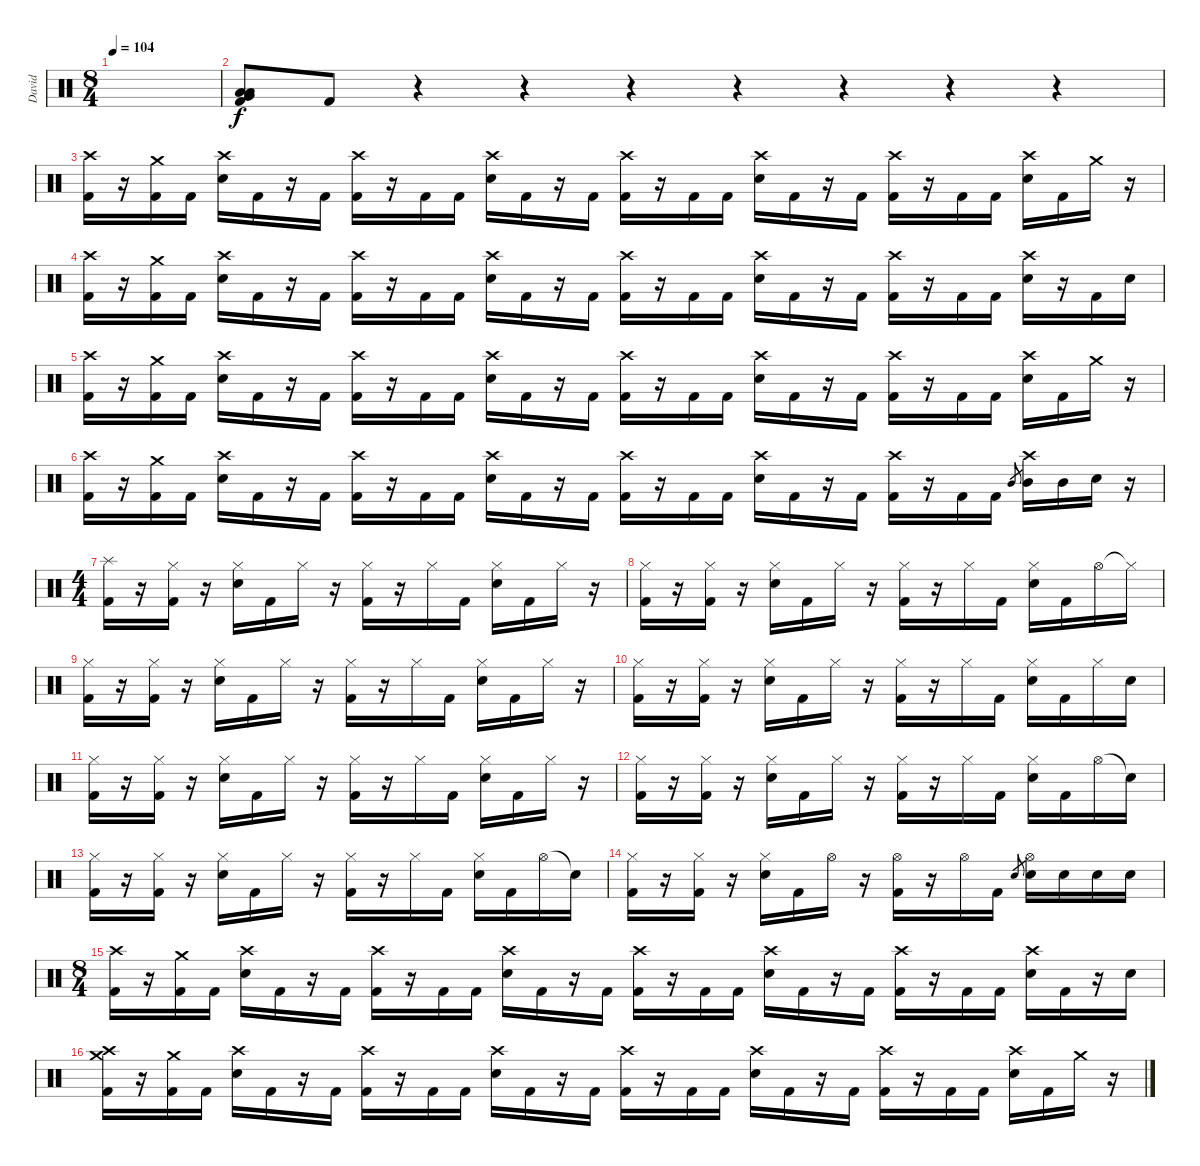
\track ("David" "David") {instrument percussion}
\staff {score}
\articulation defaults
\ts (8 4)
\tempo 104
\clef neutral
\ks c
|
("Very Low Tom (hit)" "Low Floor Tom (hit)" "Low Floor Tom (hit)" "Kick (hit) 2").8 "Kick (hit) 2".8 r.4 r.4 r.4 r.4 r.4 r.4 r.4 |
("Crash high (hit)" "Kick (hit) 2").16 r.16 ("Crash medium (hit)" "Kick (hit) 2").16 "Kick (hit) 2".16 ("Crash high (hit)" "Snare (hit) 2").16 "Kick (hit) 2".16 r.16 "Kick (hit) 2".16 ("Crash high (hit)" "Kick (hit) 2").16 r.16 "Kick (hit) 2".16 "Kick (hit) 2".16 ("Crash high (hit)" "Snare (hit) 2").16 "Kick (hit) 2".16 r.16 "Kick (hit) 2".16 ("Crash high (hit)" "Kick (hit) 2").16 r.16 "Kick (hit) 2".16 "Kick (hit) 2".16 ("Crash high (hit)" "Snare (hit) 2").16 "Kick (hit) 2".16 r.16 "Kick (hit) 2".16 ("Crash high (hit)" "Kick (hit) 2").16 r.16 "Kick (hit) 2".16 "Kick (hit) 2".16 ("Crash high (hit)" "Snare (hit) 2").16 "Kick (hit) 2".16 "Crash medium (hit)".16 r.16 |
("Crash high (hit)" "Kick (hit) 2").16 r.16 ("Crash medium (hit)" "Kick (hit) 2").16 "Kick (hit) 2".16 ("Crash high (hit)" "Snare (hit) 2").16 "Kick (hit) 2".16 r.16 "Kick (hit) 2".16 ("Crash high (hit)" "Kick (hit) 2").16 r.16 "Kick (hit) 2".16 "Kick (hit) 2".16 ("Crash high (hit)" "Snare (hit) 2").16 "Kick (hit) 2".16 r.16 "Kick (hit) 2".16 ("Crash high (hit)" "Kick (hit) 2").16 r.16 "Kick (hit) 2".16 "Kick (hit) 2".16 ("Crash high (hit)" "Snare (hit) 2").16 "Kick (hit) 2".16 r.16 "Kick (hit) 2".16 ("Crash high (hit)" "Kick (hit) 2").16 r.16 "Kick (hit) 2".16 "Kick (hit) 2".16 ("Crash high (hit)" "Snare (hit) 2").16 r.16 "Kick (hit) 2".16 "Snare (hit) 2".16 |
("Crash high (hit)" "Kick (hit) 2").16 r.16 ("Crash medium (hit)" "Kick (hit) 2").16 "Kick (hit) 2".16 ("Crash high (hit)" "Snare (hit) 2").16 "Kick (hit) 2".16 r.16 "Kick (hit) 2".16 ("Crash high (hit)" "Kick (hit) 2").16 r.16 "Kick (hit) 2".16 "Kick (hit) 2".16 ("Crash high (hit)" "Snare (hit) 2").16 "Kick (hit) 2".16 r.16 "Kick (hit) 2".16 ("Crash high (hit)" "Kick (hit) 2").16 r.16 "Kick (hit) 2".16 "Kick (hit) 2".16 ("Crash high (hit)" "Snare (hit) 2").16 "Kick (hit) 2".16 r.16 "Kick (hit) 2".16 ("Crash high (hit)" "Kick (hit) 2").16 r.16 "Kick (hit) 2".16 "Kick (hit) 2".16 ("Crash high (hit)" "Snare (hit) 2").16 "Kick (hit) 2".16 "Crash medium (hit)".16 r.16 |
("Crash high (hit)" "Kick (hit) 2").16 r.16 ("Crash medium (hit)" "Kick (hit) 2").16 "Kick (hit) 2".16 ("Crash high (hit)" "Snare (hit) 2").16 "Kick (hit) 2".16 r.16 "Kick (hit) 2".16 ("Crash high (hit)" "Kick (hit) 2").16 r.16 "Kick (hit) 2".16 "Kick (hit) 2".16 ("Crash high (hit)" "Snare (hit) 2").16 "Kick (hit) 2".16 r.16 "Kick (hit) 2".16 ("Crash high (hit)" "Kick (hit) 2").16 r.16 "Kick (hit) 2".16 "Kick (hit) 2".16 ("Crash high (hit)" "Snare (hit) 2").16 "Kick (hit) 2".16 r.16 "Kick (hit) 2".16 ("Crash high (hit)" "Kick (hit) 2").16 r.16 "Kick (hit) 2".16 "Kick (hit) 2".16 "Mid Tom (hit)".8{gr} ("Crash high (hit)" "Mid Tom (hit)").16 "Mid Tom (hit)".16 "Snare (hit) 2".16 r.16 |
\ts (4 4)
("Splash (hit)" "Kick (hit) 2").16 r.16 ("Hi-Hat (closed)" "Kick (hit) 2").16 r.16 ("Hi-Hat (closed)" "Snare (hit) 2").16 "Kick (hit) 2".16 "Hi-Hat (closed)".16 r.16 ("Hi-Hat (closed)" "Kick (hit) 2").16 r.16 "Hi-Hat (closed)".16 "Kick (hit) 2".16 ("Hi-Hat (closed)" "Snare (hit) 2").16 "Kick (hit) 2".16 "Hi-Hat (closed)".16 r.16 |
("Hi-Hat (closed)" "Kick (hit) 2").16 r.16 ("Hi-Hat (closed)" "Kick (hit) 2").16 r.16 ("Hi-Hat (closed)" "Snare (hit) 2").16 "Kick (hit) 2".16 "Hi-Hat (closed)".16 r.16 ("Hi-Hat (closed)" "Kick (hit) 2").16 r.16 "Hi-Hat (closed)".16 "Kick (hit) 2".16 ("Hi-Hat (closed)" "Snare (hit) 2").16 "Kick (hit) 2".16 "Hi-Hat (open)".16 "Hi-Hat (closed)"{t}.16 |
("Hi-Hat (closed)" "Kick (hit) 2").16 r.16 ("Hi-Hat (closed)" "Kick (hit) 2").16 r.16 ("Hi-Hat (closed)" "Snare (hit) 2").16 "Kick (hit) 2".16 "Hi-Hat (closed)".16 r.16 ("Hi-Hat (closed)" "Kick (hit) 2").16 r.16 "Hi-Hat (closed)".16 "Kick (hit) 2".16 ("Hi-Hat (closed)" "Snare (hit) 2").16 "Kick (hit) 2".16 "Hi-Hat (closed)".16 r.16 |
("Hi-Hat (closed)" "Kick (hit) 2").16 r.16 ("Hi-Hat (closed)" "Kick (hit) 2").16 r.16 ("Hi-Hat (closed)" "Snare (hit) 2").16 "Kick (hit) 2".16 "Hi-Hat (closed)".16 r.16 ("Hi-Hat (closed)" "Kick (hit) 2").16 r.16 "Hi-Hat (closed)".16 "Kick (hit) 2".16 ("Hi-Hat (closed)" "Snare (hit) 2").16 "Kick (hit) 2".16 "Hi-Hat (closed)".16 "Snare (hit) 2".16 |
("Hi-Hat (closed)" "Kick (hit) 2").16 r.16 ("Hi-Hat (closed)" "Kick (hit) 2").16 r.16 ("Hi-Hat (closed)" "Snare (hit) 2").16 "Kick (hit) 2".16 "Hi-Hat (closed)".16 r.16 ("Hi-Hat (closed)" "Kick (hit) 2").16 r.16 "Hi-Hat (closed)".16 "Kick (hit) 2".16 ("Hi-Hat (closed)" "Snare (hit) 2").16 "Kick (hit) 2".16 "Hi-Hat (closed)".16 r.16 |
("Hi-Hat (closed)" "Kick (hit) 2").16 r.16 ("Hi-Hat (closed)" "Kick (hit) 2").16 r.16 ("Hi-Hat (closed)" "Snare (hit) 2").16 "Kick (hit) 2".16 "Hi-Hat (closed)".16 r.16 ("Hi-Hat (closed)" "Kick (hit) 2").16 r.16 "Hi-Hat (closed)".16 "Kick (hit) 2".16 ("Hi-Hat (closed)" "Snare (hit) 2").16 "Kick (hit) 2".16 "Hi-Hat (open)".16 "Snare (hit)"{t}.16 |
("Hi-Hat (closed)" "Kick (hit) 2").16 r.16 ("Hi-Hat (closed)" "Kick (hit) 2").16 r.16 ("Hi-Hat (closed)" "Snare (hit) 2").16 "Kick (hit) 2".16 "Hi-Hat (closed)".16 r.16 ("Hi-Hat (closed)" "Kick (hit) 2").16 r.16 "Hi-Hat (closed)".16 "Kick (hit) 2".16 ("Hi-Hat (closed)" "Snare (hit) 2").16 "Kick (hit) 2".16 "Hi-Hat (open)".16 "Snare (hit)"{t}.16 |
("Hi-Hat (closed)" "Kick (hit) 2").16 r.16 ("Hi-Hat (closed)" "Kick (hit) 2").16 r.16 ("Hi-Hat (closed)" "Snare (hit) 2").16 "Kick (hit) 2".16 "Hi-Hat (open)".16 r.16 ("Hi-Hat (open)" "Kick (hit) 2").16 r.16 "Hi-Hat (open)".16 "Kick (hit) 2".16 "Snare (hit) 2".8{gr} ("Hi-Hat (open)" "Snare (hit) 2").16 "Snare (hit) 2".16 "Snare (hit) 2".16 "Snare (hit) 2".16 |
\ts (8 4)
("Crash high (hit)" "Kick (hit) 2").16 r.16 ("Crash medium (hit)" "Kick (hit) 2").16 "Kick (hit) 2".16 ("Crash high (hit)" "Snare (hit) 2").16 "Kick (hit) 2".16 r.16 "Kick (hit) 2".16 ("Crash high (hit)" "Kick (hit) 2").16 r.16 "Kick (hit) 2".16 "Kick (hit) 2".16 ("Crash high (hit)" "Snare (hit) 2").16 "Kick (hit) 2".16 r.16 "Kick (hit) 2".16 ("Crash high (hit)" "Kick (hit) 2").16 r.16 "Kick (hit) 2".16 "Kick (hit) 2".16 ("Crash high (hit)" "Snare (hit) 2").16 "Kick (hit) 2".16 r.16 "Kick (hit) 2".16 ("Crash high (hit)" "Kick (hit) 2").16 r.16 "Kick (hit) 2".16 "Kick (hit) 2".16 ("Crash high (hit)" "Snare (hit) 2").16 "Kick (hit) 2".16 r.16 "Snare (hit) 2".16 |
("Crash medium (hit)" "Crash high (hit)" "Kick (hit) 2").16 r.16 ("Crash medium (hit)" "Kick (hit) 2").16 "Kick (hit) 2".16 ("Crash high (hit)" "Snare (hit) 2").16 "Kick (hit) 2".16 r.16 "Kick (hit) 2".16 ("Crash high (hit)" "Kick (hit) 2").16 r.16 "Kick (hit) 2".16 "Kick (hit) 2".16 ("Crash high (hit)" "Snare (hit) 2").16 "Kick (hit) 2".16 r.16 "Kick (hit) 2".16 ("Crash high (hit)" "Kick (hit) 2").16 r.16 "Kick (hit) 2".16 "Kick (hit) 2".16 ("Crash high (hit)" "Snare (hit) 2").16 "Kick (hit) 2".16 r.16 "Kick (hit) 2".16 ("Crash high (hit)" "Kick (hit) 2").16 r.16 "Kick (hit) 2".16 "Kick (hit) 2".16 ("Crash high (hit)" "Snare (hit) 2").16 "Kick (hit) 2".16 "Crash medium (hit)".16 r.16
